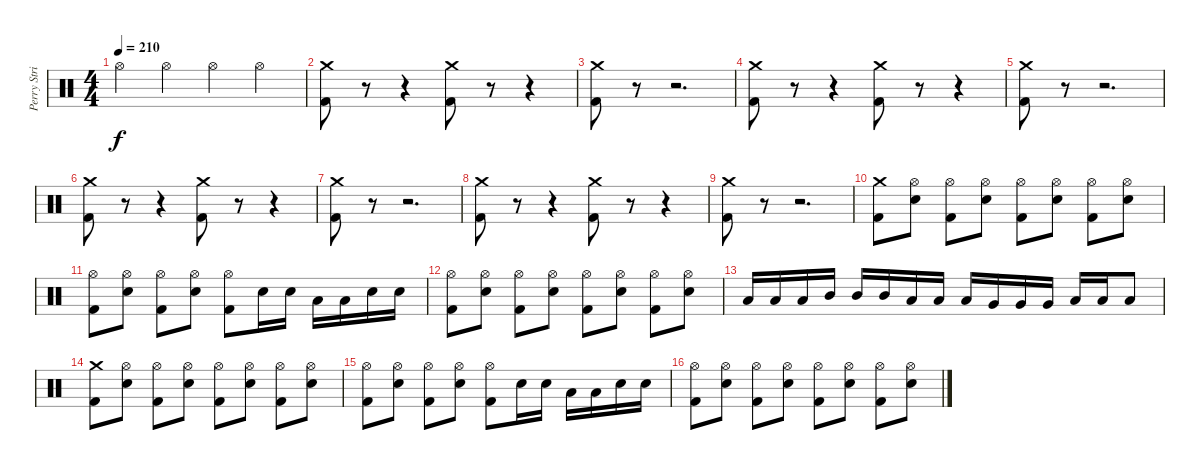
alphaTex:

\track ("Perry Strickland" "Perry Stri") {instrument percussion}
\staff {score}
\articulation defaults
\ts (4 4)
\tempo 210
\clef neutral
\ks c "Hi-Hat (open)".4{dy f} "Hi-Hat (open)".4 "Hi-Hat (open)".4 "Hi-Hat (open)".4
|
("Crash medium (hit)" "Kick (hit) 2").8 r.8 r.4 ("Crash medium (hit)" "Kick (hit) 2").8 r.8 r.4 |
("Crash medium (hit)" "Kick (hit) 2").8 r.8 r.2{d} |
("Crash medium (hit)" "Kick (hit) 2").8 r.8 r.4 ("Crash medium (hit)" "Kick (hit) 2").8 r.8 r.4 |
("Crash medium (hit)" "Kick (hit) 2").8 r.8 r.2{d} |
("Crash medium (hit)" "Kick (hit) 2").8 r.8 r.4 ("Crash medium (hit)" "Kick (hit) 2").8 r.8 r.4 |
("Crash medium (hit)" "Kick (hit) 2").8 r.8 r.2{d} |
("Crash medium (hit)" "Kick (hit) 2").8 r.8 r.4 ("Crash medium (hit)" "Kick (hit) 2").8 r.8 r.4 |
("Crash medium (hit)" "Kick (hit) 2").8 r.8 r.2{d} |
("Crash medium (hit)" "Kick (hit) 2").8 ("Hi-Hat (open)" "Electric Snare (hit)").8 ("Hi-Hat (open)" "Kick (hit) 2").8 ("Hi-Hat (open)" "Electric Snare (hit)").8 ("Hi-Hat (open)" "Kick (hit) 2").8 ("Hi-Hat (open)" "Electric Snare (hit)").8 ("Hi-Hat (open)" "Kick (hit) 2").8 ("Hi-Hat (open)" "Electric Snare (hit)").8 |
("Hi-Hat (open)" "Kick (hit) 2").8 ("Hi-Hat (open)" "Electric Snare (hit)").8 ("Hi-Hat (open)" "Kick (hit) 2").8 ("Hi-Hat (open)" "Electric Snare (hit)").8 ("Hi-Hat (open)" "Kick (hit) 2").8 "Electric Snare (hit)".16 "Electric Snare (hit)".16 "Low Tom (hit)".16 "Low Tom (hit)".16 "Electric Snare (hit)".16 "Electric Snare (hit)".16 |
("Hi-Hat (open)" "Kick (hit) 2").8 ("Hi-Hat (open)" "Electric Snare (hit)").8 ("Hi-Hat (open)" "Kick (hit) 2").8 ("Hi-Hat (open)" "Electric Snare (hit)").8 ("Hi-Hat (open)" "Kick (hit) 2").8 ("Hi-Hat (open)" "Electric Snare (hit)").8 ("Hi-Hat (open)" "Kick (hit) 2").8 ("Hi-Hat (open)" "Electric Snare (hit)").8 |
"Low Tom (hit)".16 "Low Tom (hit)".16 "Low Tom (hit)".16 "Mid Tom (hit)".16 "Mid Tom (hit)".16 "Mid Tom (hit)".16 "Low Tom (hit)".16 "Low Tom (hit)".16 "Low Tom (hit)".16 "Very Low Tom (hit)".16 "Very Low Tom (hit)".16 "Very Low Tom (hit)".16 "Low Floor Tom (hit)".16 "Low Floor Tom (hit)".16 "Low Floor Tom (hit)".8 |
("Crash medium (hit)" "Kick (hit) 2").8 ("Hi-Hat (open)" "Electric Snare (hit)").8 ("Hi-Hat (open)" "Kick (hit) 2").8 ("Hi-Hat (open)" "Electric Snare (hit)").8 ("Hi-Hat (open)" "Kick (hit) 2").8 ("Hi-Hat (open)" "Electric Snare (hit)").8 ("Hi-Hat (open)" "Kick (hit) 2").8 ("Hi-Hat (open)" "Electric Snare (hit)").8 |
("Hi-Hat (open)" "Kick (hit) 2").8 ("Hi-Hat (open)" "Electric Snare (hit)").8 ("Hi-Hat (open)" "Kick (hit) 2").8 ("Hi-Hat (open)" "Electric Snare (hit)").8 ("Hi-Hat (open)" "Kick (hit) 2").8 "Electric Snare (hit)".16 "Electric Snare (hit)".16 "Low Tom (hit)".16 "Low Tom (hit)".16 "Electric Snare (hit)".16 "Electric Snare (hit)".16 |
("Hi-Hat (open)" "Kick (hit) 2").8 ("Hi-Hat (open)" "Electric Snare (hit)").8 ("Hi-Hat (open)" "Kick (hit) 2").8 ("Hi-Hat (open)" "Electric Snare (hit)").8 ("Hi-Hat (open)" "Kick (hit) 2").8 ("Hi-Hat (open)" "Electric Snare (hit)").8 ("Hi-Hat (open)" "Kick (hit) 2").8 ("Hi-Hat (open)" "Electric Snare (hit)").8
